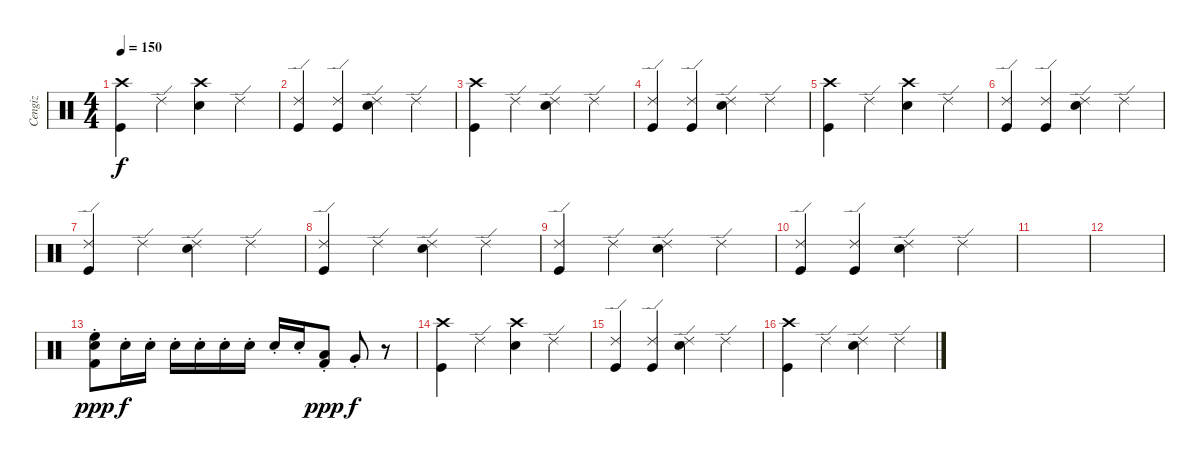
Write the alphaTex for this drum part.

\track ("Cengiz" "Cengiz") {instrument percussion}
\staff {score}
\articulation defaults
\ts (4 4)
\tempo 150
\clef neutral
\ks c
("Crash high (hit)" "Kick (hit)").4{dy f} "Ride (edge) 2".4 ("Crash high (hit)" "Snare (hit) 2").4 "Ride (edge) 2".4 |
("Ride (edge) 2" "Kick (hit)").4 ("Ride (edge) 2" "Kick (hit)").4 ("Ride (edge) 2" "Snare (hit) 2").4 "Ride (edge) 2".4 |
("Crash high (hit)" "Kick (hit)").4 "Ride (edge) 2".4 ("Ride (edge) 2" "Snare (hit) 2").4 "Ride (edge) 2".4 |
("Ride (edge) 2" "Kick (hit)").4 ("Ride (edge) 2" "Kick (hit)").4 ("Ride (edge) 2" "Snare (hit) 2").4 "Ride (edge) 2".4 |
("Crash high (hit)" "Kick (hit)").4 "Ride (edge) 2".4 ("Crash high (hit)" "Snare (hit) 2").4 "Ride (edge) 2".4 |
("Ride (edge) 2" "Kick (hit)").4 ("Ride (edge) 2" "Kick (hit)").4 ("Ride (edge) 2" "Snare (hit) 2").4 "Ride (edge) 2".4 |
("Ride (edge) 2" "Kick (hit)").4 "Ride (edge) 2".4 ("Ride (edge) 2" "Snare (hit) 2").4 "Ride (edge) 2".4 |
("Ride (edge) 2" "Kick (hit)").4 "Ride (edge) 2".4 ("Ride (edge) 2" "Snare (hit) 2").4 "Ride (edge) 2".4 |
("Ride (edge) 2" "Kick (hit)").4 "Ride (edge) 2".4 ("Ride (edge) 2" "Snare (hit) 2").4 "Ride (edge) 2".4 |
("Ride (edge) 2" "Kick (hit)").4 ("Ride (edge) 2" "Kick (hit)").4 ("Ride (edge) 2" "Snare (hit) 2").4 "Ride (edge) 2".4 |
|
|
("High Floor Tom (hit)"{st} "Electric Snare (hit)"{st} "Kick (hit) 2"{st}).8{dy ppp} "Electric Snare (hit)"{st}.16{dy f} "Electric Snare (hit)"{st}.16 "Electric Snare (hit)"{st}.16 "Electric Snare (hit)"{st}.16 "Electric Snare (hit)"{st}.16 "Electric Snare (hit)"{st}.16 "Electric Snare (hit)"{st}.16 "Electric Snare (hit)"{st}.16 ("Low Tom (hit)"{st} "Kick (hit) 2"{st}).8{dy ppp} "Very Low Tom (hit)"{st}.8{dy f} r.8 |
("Crash high (hit)" "Kick (hit)").4 "Ride (edge) 2".4 ("Crash high (hit)" "Snare (hit) 2").4 "Ride (edge) 2".4 |
("Ride (edge) 2" "Kick (hit)").4 ("Ride (edge) 2" "Kick (hit)").4 ("Ride (edge) 2" "Snare (hit) 2").4 "Ride (edge) 2".4 |
("Crash high (hit)" "Kick (hit)").4 "Ride (edge) 2".4 ("Ride (edge) 2" "Snare (hit) 2").4 "Ride (edge) 2".4
